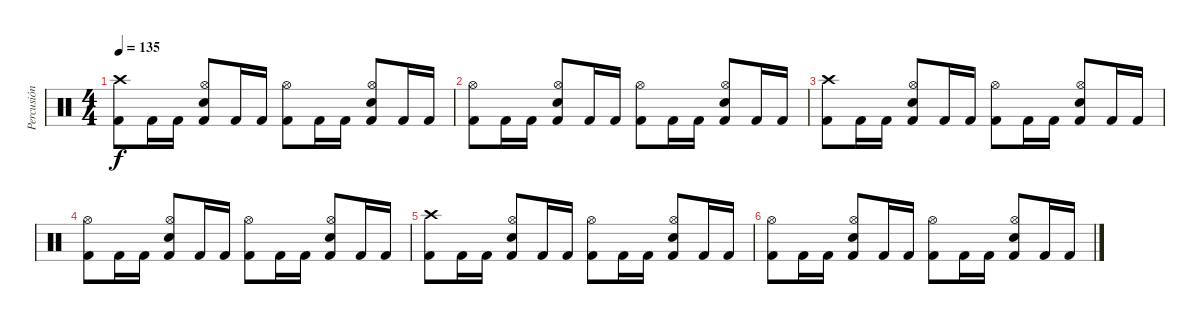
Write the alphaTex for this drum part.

\track ("Percusión" "Percusión") {instrument percussion}
\staff {score}
\articulation defaults
\ts (4 4)
\tempo 135
\clef neutral
\ks c
("Kick (hit) 2" "Crash high (hit)").8{dy f} "Kick (hit) 2".16 "Kick (hit) 2".16 ("Kick (hit) 2" "Hi-Hat (open)" "Snare (hit) 2").8 "Kick (hit) 2".16 "Kick (hit) 2".16 ("Kick (hit) 2" "Hi-Hat (open)").8 "Kick (hit) 2".16 "Kick (hit) 2".16 ("Kick (hit) 2" "Hi-Hat (open)" "Snare (hit) 2").8 "Kick (hit) 2".16 "Kick (hit) 2".16 |
("Kick (hit) 2" "Hi-Hat (open)").8 "Kick (hit) 2".16 "Kick (hit) 2".16 ("Kick (hit) 2" "Hi-Hat (open)" "Snare (hit) 2").8 "Kick (hit) 2".16 "Kick (hit) 2".16 ("Kick (hit) 2" "Hi-Hat (open)").8 "Kick (hit) 2".16 "Kick (hit) 2".16 ("Kick (hit) 2" "Hi-Hat (open)" "Snare (hit) 2").8 "Kick (hit) 2".16 "Kick (hit) 2".16 |
("Kick (hit) 2" "Crash high (hit)").8 "Kick (hit) 2".16 "Kick (hit) 2".16 ("Kick (hit) 2" "Hi-Hat (open)" "Snare (hit) 2").8 "Kick (hit) 2".16 "Kick (hit) 2".16 ("Kick (hit) 2" "Hi-Hat (open)").8 "Kick (hit) 2".16 "Kick (hit) 2".16 ("Kick (hit) 2" "Hi-Hat (open)" "Snare (hit) 2").8 "Kick (hit) 2".16 "Kick (hit) 2".16 |
("Kick (hit) 2" "Hi-Hat (open)").8 "Kick (hit) 2".16 "Kick (hit) 2".16 ("Kick (hit) 2" "Hi-Hat (open)" "Snare (hit) 2").8 "Kick (hit) 2".16 "Kick (hit) 2".16 ("Kick (hit) 2" "Hi-Hat (open)").8 "Kick (hit) 2".16 "Kick (hit) 2".16 ("Kick (hit) 2" "Hi-Hat (open)" "Snare (hit) 2").8 "Kick (hit) 2".16 "Kick (hit) 2".16 |
("Kick (hit) 2" "Crash high (hit)").8 "Kick (hit) 2".16 "Kick (hit) 2".16 ("Kick (hit) 2" "Hi-Hat (open)" "Snare (hit) 2").8 "Kick (hit) 2".16 "Kick (hit) 2".16 ("Kick (hit) 2" "Hi-Hat (open)").8 "Kick (hit) 2".16 "Kick (hit) 2".16 ("Kick (hit) 2" "Hi-Hat (open)" "Snare (hit) 2").8 "Kick (hit) 2".16 "Kick (hit) 2".16 |
("Kick (hit) 2" "Hi-Hat (open)").8 "Kick (hit) 2".16 "Kick (hit) 2".16 ("Kick (hit) 2" "Hi-Hat (open)" "Snare (hit) 2").8 "Kick (hit) 2".16 "Kick (hit) 2".16 ("Kick (hit) 2" "Hi-Hat (open)").8 "Kick (hit) 2".16 "Kick (hit) 2".16 ("Kick (hit) 2" "Hi-Hat (open)" "Snare (hit) 2").8 "Kick (hit) 2".16 "Kick (hit) 2".16
